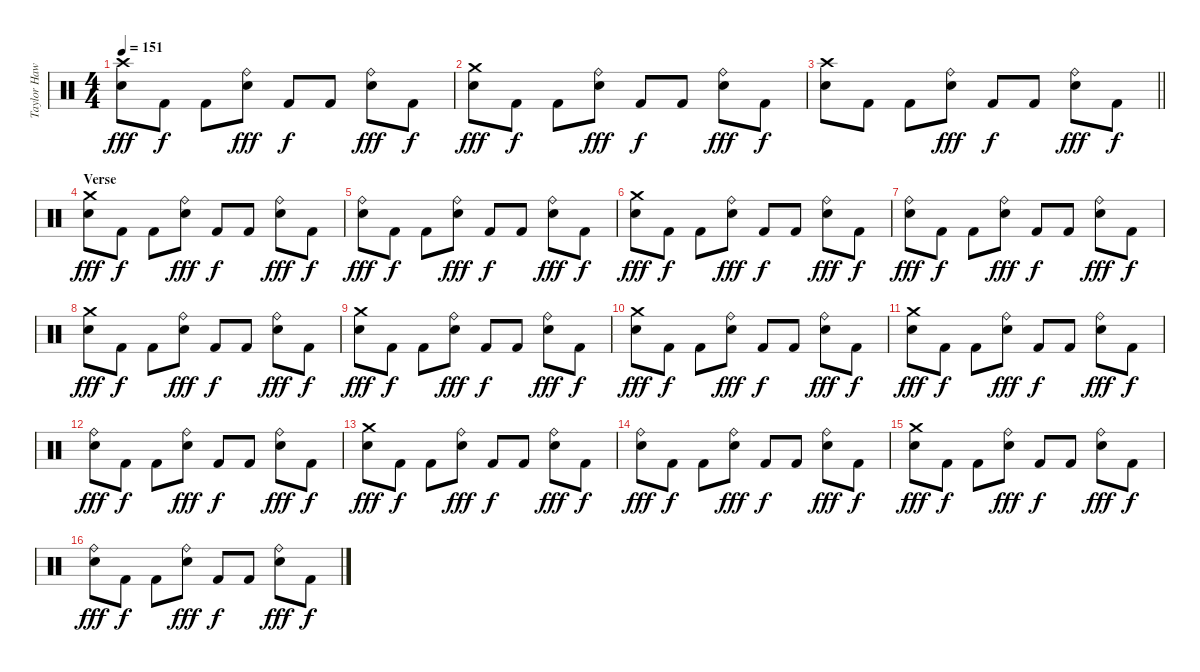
\track ("Taylor Hawkins" "Taylor Haw") {instrument percussion}
\staff {score}
\articulation defaults
\ts (4 4)
\tempo 151
\clef neutral
\ks c
("Crash high (hit)" "Electric Snare (hit)").8{dy fff} "Kick (hit) 2".8{dy f} "Kick (hit) 2".8 ("Ride (bell)" "Electric Snare (hit)").8{dy fff} "Kick (hit) 2".8{dy f} "Kick (hit) 2".8 ("Ride (bell)" "Electric Snare (hit)").8{dy fff} "Kick (hit) 2".8{dy f} |
("Crash medium (hit)" "Electric Snare (hit)").8{dy fff} "Kick (hit) 2".8{dy f} "Kick (hit) 2".8 ("Ride (bell)" "Electric Snare (hit)").8{dy fff} "Kick (hit) 2".8{dy f} "Kick (hit) 2".8 ("Ride (bell)" "Electric Snare (hit)").8{dy fff} "Kick (hit) 2".8{dy f} |
\barLineRight lightlight
("Crash high (hit)" "Electric Snare (hit)").8 "Kick (hit) 2".8 "Kick (hit) 2".8 ("Ride (bell)" "Electric Snare (hit)").8{dy fff} "Kick (hit) 2".8{dy f} "Kick (hit) 2".8 ("Ride (bell)" "Electric Snare (hit)").8{dy fff} "Kick (hit) 2".8{dy f} |
\section ("" "Verse")
("Crash medium (hit)" "Electric Snare (hit)").8{dy fff} "Kick (hit) 2".8{dy f} "Kick (hit) 2".8 ("Ride (bell)" "Electric Snare (hit)").8{dy fff} "Kick (hit) 2".8{dy f} "Kick (hit) 2".8 ("Ride (bell)" "Electric Snare (hit)").8{dy fff} "Kick (hit) 2".8{dy f} |
("Ride (bell)" "Electric Snare (hit)").8{dy fff} "Kick (hit) 2".8{dy f} "Kick (hit) 2".8 ("Ride (bell)" "Electric Snare (hit)").8{dy fff} "Kick (hit) 2".8{dy f} "Kick (hit) 2".8 ("Ride (bell)" "Electric Snare (hit)").8{dy fff} "Kick (hit) 2".8{dy f} |
("Crash medium (hit)" "Electric Snare (hit)").8{dy fff} "Kick (hit) 2".8{dy f} "Kick (hit) 2".8 ("Ride (bell)" "Electric Snare (hit)").8{dy fff} "Kick (hit) 2".8{dy f} "Kick (hit) 2".8 ("Ride (bell)" "Electric Snare (hit)").8{dy fff} "Kick (hit) 2".8{dy f} |
("Ride (bell)" "Electric Snare (hit)").8{dy fff} "Kick (hit) 2".8{dy f} "Kick (hit) 2".8 ("Ride (bell)" "Electric Snare (hit)").8{dy fff} "Kick (hit) 2".8{dy f} "Kick (hit) 2".8 ("Ride (bell)" "Electric Snare (hit)").8{dy fff} "Kick (hit) 2".8{dy f} |
("Crash medium (hit)" "Electric Snare (hit)").8{dy fff} "Kick (hit) 2".8{dy f} "Kick (hit) 2".8 ("Ride (bell)" "Electric Snare (hit)").8{dy fff} "Kick (hit) 2".8{dy f} "Kick (hit) 2".8 ("Ride (bell)" "Electric Snare (hit)").8{dy fff} "Kick (hit) 2".8{dy f} |
("Crash medium (hit)" "Electric Snare (hit)").8{dy fff} "Kick (hit) 2".8{dy f} "Kick (hit) 2".8 ("Ride (bell)" "Electric Snare (hit)").8{dy fff} "Kick (hit) 2".8{dy f} "Kick (hit) 2".8 ("Ride (bell)" "Electric Snare (hit)").8{dy fff} "Kick (hit) 2".8{dy f} |
("Crash medium (hit)" "Electric Snare (hit)").8{dy fff} "Kick (hit) 2".8{dy f} "Kick (hit) 2".8 ("Ride (bell)" "Electric Snare (hit)").8{dy fff} "Kick (hit) 2".8{dy f} "Kick (hit) 2".8 ("Ride (bell)" "Electric Snare (hit)").8{dy fff} "Kick (hit) 2".8{dy f} |
("Crash medium (hit)" "Electric Snare (hit)").8{dy fff} "Kick (hit) 2".8{dy f} "Kick (hit) 2".8 ("Ride (bell)" "Electric Snare (hit)").8{dy fff} "Kick (hit) 2".8{dy f} "Kick (hit) 2".8 ("Ride (bell)" "Electric Snare (hit)").8{dy fff} "Kick (hit) 2".8{dy f} |
("Ride (bell)" "Electric Snare (hit)").8{dy fff} "Kick (hit) 2".8{dy f} "Kick (hit) 2".8 ("Ride (bell)" "Electric Snare (hit)").8{dy fff} "Kick (hit) 2".8{dy f} "Kick (hit) 2".8 ("Ride (bell)" "Electric Snare (hit)").8{dy fff} "Kick (hit) 2".8{dy f} |
("Crash medium (hit)" "Electric Snare (hit)").8{dy fff} "Kick (hit) 2".8{dy f} "Kick (hit) 2".8 ("Ride (bell)" "Electric Snare (hit)").8{dy fff} "Kick (hit) 2".8{dy f} "Kick (hit) 2".8 ("Ride (bell)" "Electric Snare (hit)").8{dy fff} "Kick (hit) 2".8{dy f} |
("Ride (bell)" "Electric Snare (hit)").8{dy fff} "Kick (hit) 2".8{dy f} "Kick (hit) 2".8 ("Ride (bell)" "Electric Snare (hit)").8{dy fff} "Kick (hit) 2".8{dy f} "Kick (hit) 2".8 ("Ride (bell)" "Electric Snare (hit)").8{dy fff} "Kick (hit) 2".8{dy f} |
("Crash medium (hit)" "Electric Snare (hit)").8{dy fff} "Kick (hit) 2".8{dy f} "Kick (hit) 2".8 ("Ride (bell)" "Electric Snare (hit)").8{dy fff} "Kick (hit) 2".8{dy f} "Kick (hit) 2".8 ("Ride (bell)" "Electric Snare (hit)").8{dy fff} "Kick (hit) 2".8{dy f} |
("Ride (bell)" "Electric Snare (hit)").8{dy fff} "Kick (hit) 2".8{dy f} "Kick (hit) 2".8 ("Ride (bell)" "Electric Snare (hit)").8{dy fff} "Kick (hit) 2".8{dy f} "Kick (hit) 2".8 ("Ride (bell)" "Electric Snare (hit)").8{dy fff} "Kick (hit) 2".8{dy f}
